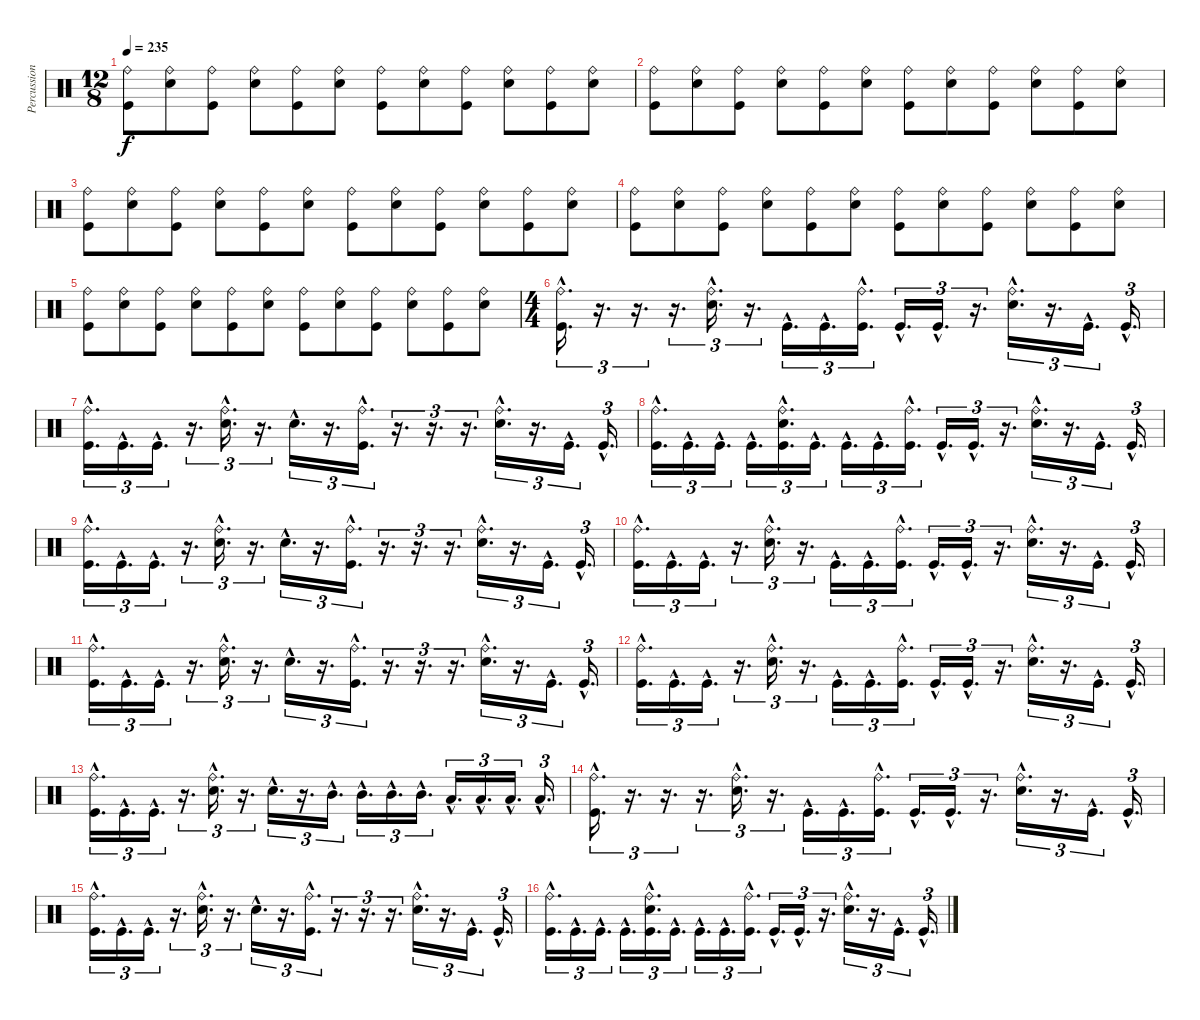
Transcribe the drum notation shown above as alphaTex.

\track ("Percussion" "Percussion") {instrument percussion}
\staff {score}
\articulation defaults
\ts (12 8)
\tempo 235
\clef neutral
\ks c
("Ride (bell)" "Kick (hit)").8{dy f} ("Ride (bell)" "Snare (hit) 2").8 ("Ride (bell)" "Kick (hit)").8 ("Ride (bell)" "Snare (hit) 2").8 ("Ride (bell)" "Kick (hit)").8 ("Ride (bell)" "Snare (hit) 2").8 ("Ride (bell)" "Kick (hit)").8 ("Ride (bell)" "Snare (hit) 2").8 ("Ride (bell)" "Kick (hit)").8 ("Ride (bell)" "Snare (hit) 2").8 ("Ride (bell)" "Kick (hit)").8 ("Ride (bell)" "Snare (hit) 2").8 |
("Ride (bell)" "Kick (hit)").8 ("Ride (bell)" "Snare (hit) 2").8 ("Ride (bell)" "Kick (hit)").8 ("Ride (bell)" "Snare (hit) 2").8 ("Ride (bell)" "Kick (hit)").8 ("Ride (bell)" "Snare (hit) 2").8 ("Ride (bell)" "Kick (hit)").8 ("Ride (bell)" "Snare (hit) 2").8 ("Ride (bell)" "Kick (hit)").8 ("Ride (bell)" "Snare (hit) 2").8 ("Ride (bell)" "Kick (hit)").8 ("Ride (bell)" "Snare (hit) 2").8 |
("Ride (bell)" "Kick (hit)").8 ("Ride (bell)" "Snare (hit) 2").8 ("Ride (bell)" "Kick (hit)").8 ("Ride (bell)" "Snare (hit) 2").8 ("Ride (bell)" "Kick (hit)").8 ("Ride (bell)" "Snare (hit) 2").8 ("Ride (bell)" "Kick (hit)").8 ("Ride (bell)" "Snare (hit) 2").8 ("Ride (bell)" "Kick (hit)").8 ("Ride (bell)" "Snare (hit) 2").8 ("Ride (bell)" "Kick (hit)").8 ("Ride (bell)" "Snare (hit) 2").8 |
("Ride (bell)" "Kick (hit)").8 ("Ride (bell)" "Snare (hit) 2").8 ("Ride (bell)" "Kick (hit)").8 ("Ride (bell)" "Snare (hit) 2").8 ("Ride (bell)" "Kick (hit)").8 ("Ride (bell)" "Snare (hit) 2").8 ("Ride (bell)" "Kick (hit)").8 ("Ride (bell)" "Snare (hit) 2").8 ("Ride (bell)" "Kick (hit)").8 ("Ride (bell)" "Snare (hit) 2").8 ("Ride (bell)" "Kick (hit)").8 ("Ride (bell)" "Snare (hit) 2").8 |
("Ride (bell)" "Kick (hit)").8 ("Ride (bell)" "Snare (hit) 2").8 ("Ride (bell)" "Kick (hit)").8 ("Ride (bell)" "Snare (hit) 2").8 ("Ride (bell)" "Kick (hit)").8 ("Ride (bell)" "Snare (hit) 2").8 ("Ride (bell)" "Kick (hit)").8 ("Ride (bell)" "Snare (hit) 2").8 ("Ride (bell)" "Kick (hit)").8 ("Ride (bell)" "Snare (hit) 2").8 ("Ride (bell)" "Kick (hit)").8 ("Ride (bell)" "Snare (hit) 2").8 |
\ts (4 4)
("Ride (bell)"{hac} "Kick (hit)"{hac}).16{d tu (3 2)} r.16{d tu (3 2)} r.16{d tu (3 2)} r.16{d tu (3 2)} ("Ride (bell)"{hac} "Snare (hit) 2"{hac}).16{d tu (3 2)} r.16{d tu (3 2)} "Kick (hit)"{hac}.16{d tu (3 2)} "Kick (hit)"{hac}.16{d tu (3 2)} ("Ride (bell)"{hac} "Kick (hit)"{hac}).16{d tu (3 2)} "Kick (hit)"{hac}.16{d tu (3 2)} "Kick (hit)"{hac}.16{d tu (3 2)} r.16{d tu (3 2)} ("Ride (bell)"{hac} "Snare (hit) 2"{hac}).16{d tu (3 2)} r.16{d tu (3 2)} "Kick (hit)"{hac}.16{d tu (3 2)} "Kick (hit)"{hac}.16{d tu (3 2)} |
("Ride (bell)"{hac} "Kick (hit)"{hac}).16{d tu (3 2)} "Kick (hit)"{hac}.16{d tu (3 2)} "Kick (hit)"{hac}.16{d tu (3 2)} r.16{d tu (3 2)} ("Ride (bell)"{hac} "Snare (hit) 2"{hac}).16{d tu (3 2)} r.16{d tu (3 2)} "Snare (hit) 2"{hac}.16{d tu (3 2)} r.16{d tu (3 2)} ("Ride (bell)"{hac} "Kick (hit)"{hac}).16{d tu (3 2)} r.16{d tu (3 2)} r.16{d tu (3 2)} r.16{d tu (3 2)} ("Ride (bell)"{hac} "Snare (hit) 2"{hac}).16{d tu (3 2)} r.16{d tu (3 2)} "Kick (hit)"{hac}.16{d tu (3 2)} "Kick (hit)"{hac}.16{d tu (3 2)} |
("Ride (bell)"{hac} "Kick (hit)"{hac}).16{d tu (3 2)} "Kick (hit)"{hac}.16{d tu (3 2)} "Kick (hit)"{hac}.16{d tu (3 2)} "Kick (hit)"{hac}.16{d tu (3 2)} ("Ride (bell)"{hac} "Snare (hit) 2"{hac} "Kick (hit)"{hac}).16{d tu (3 2)} "Kick (hit)"{hac}.16{d tu (3 2)} "Kick (hit)"{hac}.16{d tu (3 2)} "Kick (hit)"{hac}.16{d tu (3 2)} ("Ride (bell)"{hac} "Kick (hit)"{hac}).16{d tu (3 2)} "Kick (hit)"{hac}.16{d tu (3 2)} "Kick (hit)"{hac}.16{d tu (3 2)} r.16{d tu (3 2)} ("Ride (bell)"{hac} "Snare (hit) 2"{hac}).16{d tu (3 2)} r.16{d tu (3 2)} "Kick (hit)"{hac}.16{d tu (3 2)} "Kick (hit)"{hac}.16{d tu (3 2)} |
("Ride (bell)"{hac} "Kick (hit)"{hac}).16{d tu (3 2)} "Kick (hit)"{hac}.16{d tu (3 2)} "Kick (hit)"{hac}.16{d tu (3 2)} r.16{d tu (3 2)} ("Ride (bell)"{hac} "Snare (hit) 2"{hac}).16{d tu (3 2)} r.16{d tu (3 2)} "Snare (hit) 2"{hac}.16{d tu (3 2)} r.16{d tu (3 2)} ("Ride (bell)"{hac} "Kick (hit)"{hac}).16{d tu (3 2)} r.16{d tu (3 2)} r.16{d tu (3 2)} r.16{d tu (3 2)} ("Ride (bell)"{hac} "Snare (hit) 2"{hac}).16{d tu (3 2)} r.16{d tu (3 2)} "Kick (hit)"{hac}.16{d tu (3 2)} "Kick (hit)"{hac}.16{d tu (3 2)} |
("Ride (bell)"{hac} "Kick (hit)"{hac}).16{d tu (3 2)} "Kick (hit)"{hac}.16{d tu (3 2)} "Kick (hit)"{hac}.16{d tu (3 2)} r.16{d tu (3 2)} ("Ride (bell)"{hac} "Snare (hit) 2"{hac}).16{d tu (3 2)} r.16{d tu (3 2)} "Kick (hit)"{hac}.16{d tu (3 2)} "Kick (hit)"{hac}.16{d tu (3 2)} ("Ride (bell)"{hac} "Kick (hit)"{hac}).16{d tu (3 2)} "Kick (hit)"{hac}.16{d tu (3 2)} "Kick (hit)"{hac}.16{d tu (3 2)} r.16{d tu (3 2)} ("Ride (bell)"{hac} "Snare (hit) 2"{hac}).16{d tu (3 2)} r.16{d tu (3 2)} "Kick (hit)"{hac}.16{d tu (3 2)} "Kick (hit)"{hac}.16{d tu (3 2)} |
("Ride (bell)"{hac} "Kick (hit)"{hac}).16{d tu (3 2)} "Kick (hit)"{hac}.16{d tu (3 2)} "Kick (hit)"{hac}.16{d tu (3 2)} r.16{d tu (3 2)} ("Ride (bell)"{hac} "Snare (hit) 2"{hac}).16{d tu (3 2)} r.16{d tu (3 2)} "Snare (hit) 2"{hac}.16{d tu (3 2)} r.16{d tu (3 2)} ("Ride (bell)"{hac} "Kick (hit)"{hac}).16{d tu (3 2)} r.16{d tu (3 2)} r.16{d tu (3 2)} r.16{d tu (3 2)} ("Ride (bell)"{hac} "Snare (hit) 2"{hac}).16{d tu (3 2)} r.16{d tu (3 2)} "Kick (hit)"{hac}.16{d tu (3 2)} "Kick (hit)"{hac}.16{d tu (3 2)} |
("Ride (bell)"{hac} "Kick (hit)"{hac}).16{d tu (3 2)} "Kick (hit)"{hac}.16{d tu (3 2)} "Kick (hit)"{hac}.16{d tu (3 2)} r.16{d tu (3 2)} ("Ride (bell)"{hac} "Snare (hit) 2"{hac}).16{d tu (3 2)} r.16{d tu (3 2)} "Kick (hit)"{hac}.16{d tu (3 2)} "Kick (hit)"{hac}.16{d tu (3 2)} ("Ride (bell)"{hac} "Kick (hit)"{hac}).16{d tu (3 2)} "Kick (hit)"{hac}.16{d tu (3 2)} "Kick (hit)"{hac}.16{d tu (3 2)} r.16{d tu (3 2)} ("Ride (bell)"{hac} "Snare (hit) 2"{hac}).16{d tu (3 2)} r.16{d tu (3 2)} "Kick (hit)"{hac}.16{d tu (3 2)} "Kick (hit)"{hac}.16{d tu (3 2)} |
("Ride (bell)"{hac} "Kick (hit)"{hac}).16{d tu (3 2)} "Kick (hit)"{hac}.16{d tu (3 2)} "Kick (hit)"{hac}.16{d tu (3 2)} r.16{d tu (3 2)} ("Ride (bell)"{hac} "Snare (hit) 2"{hac}).16{d tu (3 2)} r.16{d tu (3 2)} "Snare (hit) 2"{hac}.16{d tu (3 2)} r.16{d tu (3 2)} "Mid Tom (hit)"{hac}.16{d tu (3 2)} "Mid Tom (hit)"{hac}.16{d tu (3 2)} "Mid Tom (hit)"{hac}.16{d tu (3 2)} "Mid Tom (hit)"{hac}.16{d tu (3 2)} "Low Tom (hit)"{hac}.16{d tu (3 2)} "Low Tom (hit)"{hac}.16{d tu (3 2)} "Low Tom (hit)"{hac}.16{d tu (3 2)} "Low Tom (hit)"{hac}.16{d tu (3 2)} |
("Ride (bell)"{hac} "Kick (hit)"{hac}).16{d tu (3 2)} r.16{d tu (3 2)} r.16{d tu (3 2)} r.16{d tu (3 2)} ("Ride (bell)"{hac} "Snare (hit) 2"{hac}).16{d tu (3 2)} r.16{d tu (3 2)} "Kick (hit)"{hac}.16{d tu (3 2)} "Kick (hit)"{hac}.16{d tu (3 2)} ("Ride (bell)"{hac} "Kick (hit)"{hac}).16{d tu (3 2)} "Kick (hit)"{hac}.16{d tu (3 2)} "Kick (hit)"{hac}.16{d tu (3 2)} r.16{d tu (3 2)} ("Ride (bell)"{hac} "Snare (hit) 2"{hac}).16{d tu (3 2)} r.16{d tu (3 2)} "Kick (hit)"{hac}.16{d tu (3 2)} "Kick (hit)"{hac}.16{d tu (3 2)} |
("Ride (bell)"{hac} "Kick (hit)"{hac}).16{d tu (3 2)} "Kick (hit)"{hac}.16{d tu (3 2)} "Kick (hit)"{hac}.16{d tu (3 2)} r.16{d tu (3 2)} ("Ride (bell)"{hac} "Snare (hit) 2"{hac}).16{d tu (3 2)} r.16{d tu (3 2)} "Snare (hit) 2"{hac}.16{d tu (3 2)} r.16{d tu (3 2)} ("Ride (bell)"{hac} "Kick (hit)"{hac}).16{d tu (3 2)} r.16{d tu (3 2)} r.16{d tu (3 2)} r.16{d tu (3 2)} ("Ride (bell)"{hac} "Snare (hit) 2"{hac}).16{d tu (3 2)} r.16{d tu (3 2)} "Kick (hit)"{hac}.16{d tu (3 2)} "Kick (hit)"{hac}.16{d tu (3 2)} |
("Ride (bell)"{hac} "Kick (hit)"{hac}).16{d tu (3 2)} "Kick (hit)"{hac}.16{d tu (3 2)} "Kick (hit)"{hac}.16{d tu (3 2)} "Kick (hit)"{hac}.16{d tu (3 2)} ("Ride (bell)"{hac} "Snare (hit) 2"{hac} "Kick (hit)"{hac}).16{d tu (3 2)} "Kick (hit)"{hac}.16{d tu (3 2)} "Kick (hit)"{hac}.16{d tu (3 2)} "Kick (hit)"{hac}.16{d tu (3 2)} ("Ride (bell)"{hac} "Kick (hit)"{hac}).16{d tu (3 2)} "Kick (hit)"{hac}.16{d tu (3 2)} "Kick (hit)"{hac}.16{d tu (3 2)} r.16{d tu (3 2)} ("Ride (bell)"{hac} "Snare (hit) 2"{hac}).16{d tu (3 2)} r.16{d tu (3 2)} "Kick (hit)"{hac}.16{d tu (3 2)} "Kick (hit)"{hac}.16{d tu (3 2)}
